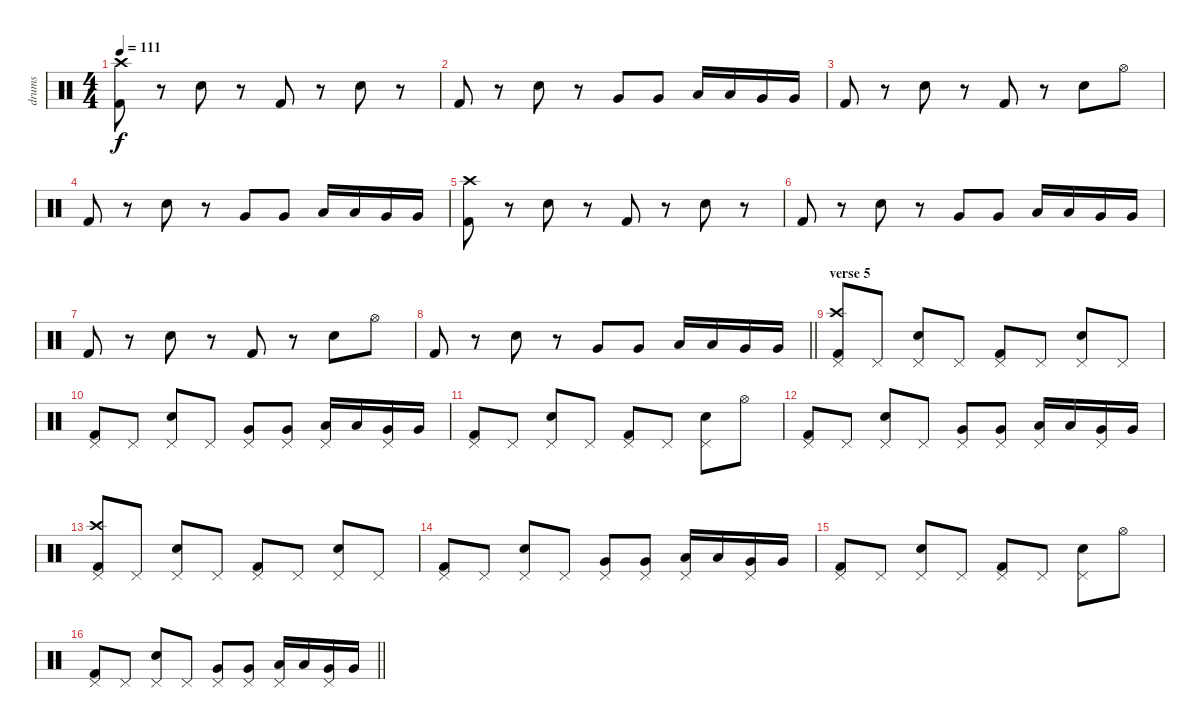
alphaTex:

\track ("drums" "drums") {instrument percussion}
\staff {score}
\articulation defaults
\ts (4 4)
\tempo 111
\clef neutral
\ks c
("Kick (hit) 2" "Crash high (hit)").8{dy f} r.8 "Electric Snare (hit)".8 r.8 "Kick (hit) 2".8 r.8 "Electric Snare (hit)".8 r.8 |
"Kick (hit) 2".8 r.8 "Electric Snare (hit)".8 r.8 "Very Low Tom (hit)".8 "Very Low Tom (hit)".8 "Low Floor Tom (hit)".16 "Low Floor Tom (hit)".16 "Very Low Tom (hit)".16 "Very Low Tom (hit)".16 |
"Kick (hit) 2".8 r.8 "Electric Snare (hit)".8 r.8 "Kick (hit) 2".8 r.8 "Electric Snare (hit)".8 "Hi-Hat (open)".8 |
"Kick (hit) 2".8 r.8 "Electric Snare (hit)".8 r.8 "Very Low Tom (hit)".8 "Very Low Tom (hit)".8 "Low Floor Tom (hit)".16 "Low Floor Tom (hit)".16 "Very Low Tom (hit)".16 "Very Low Tom (hit)".16 |
("Kick (hit) 2" "Crash high (hit)").8 r.8 "Electric Snare (hit)".8 r.8 "Kick (hit) 2".8 r.8 "Electric Snare (hit)".8 r.8 |
"Kick (hit) 2".8 r.8 "Electric Snare (hit)".8 r.8 "Very Low Tom (hit)".8 "Very Low Tom (hit)".8 "Low Floor Tom (hit)".16 "Low Floor Tom (hit)".16 "Very Low Tom (hit)".16 "Very Low Tom (hit)".16 |
"Kick (hit) 2".8 r.8 "Electric Snare (hit)".8 r.8 "Kick (hit) 2".8 r.8 "Electric Snare (hit)".8 "Hi-Hat (open)".8 |
\barLineRight lightlight "Kick (hit) 2".8
r.8 "Electric Snare (hit)".8 r.8 "Very Low Tom (hit)".8 "Very Low Tom (hit)".8 "Low Floor Tom (hit)".16 "Low Floor Tom (hit)".16 "Very Low Tom (hit)".16 "Very Low Tom (hit)".16 |
\section ("" "verse 5")
("Kick (hit) 2" "Pedal Hi-Hat (hit)" "Crash high (hit)").8 "Pedal Hi-Hat (hit)".8 ("Electric Snare (hit)" "Pedal Hi-Hat (hit)").8 "Pedal Hi-Hat (hit)".8 ("Kick (hit) 2" "Pedal Hi-Hat (hit)").8 "Pedal Hi-Hat (hit)".8 ("Electric Snare (hit)" "Pedal Hi-Hat (hit)").8 "Pedal Hi-Hat (hit)".8 |
("Kick (hit) 2" "Pedal Hi-Hat (hit)").8 "Pedal Hi-Hat (hit)".8 ("Electric Snare (hit)" "Pedal Hi-Hat (hit)").8 "Pedal Hi-Hat (hit)".8 ("Very Low Tom (hit)" "Pedal Hi-Hat (hit)").8 ("Very Low Tom (hit)" "Pedal Hi-Hat (hit)").8 ("Low Floor Tom (hit)" "Pedal Hi-Hat (hit)").16 "Low Floor Tom (hit)".16 ("Very Low Tom (hit)" "Pedal Hi-Hat (hit)").16 "Very Low Tom (hit)".16 |
("Kick (hit) 2" "Pedal Hi-Hat (hit)").8 "Pedal Hi-Hat (hit)".8 ("Electric Snare (hit)" "Pedal Hi-Hat (hit)").8 "Pedal Hi-Hat (hit)".8 ("Kick (hit) 2" "Pedal Hi-Hat (hit)").8 "Pedal Hi-Hat (hit)".8 ("Electric Snare (hit)" "Pedal Hi-Hat (hit)").8 "Hi-Hat (open)".8 |
("Kick (hit) 2" "Pedal Hi-Hat (hit)").8 "Pedal Hi-Hat (hit)".8 ("Electric Snare (hit)" "Pedal Hi-Hat (hit)").8 "Pedal Hi-Hat (hit)".8 ("Very Low Tom (hit)" "Pedal Hi-Hat (hit)").8 ("Very Low Tom (hit)" "Pedal Hi-Hat (hit)").8 ("Low Floor Tom (hit)" "Pedal Hi-Hat (hit)").16 "Low Floor Tom (hit)".16 ("Very Low Tom (hit)" "Pedal Hi-Hat (hit)").16 "Very Low Tom (hit)".16 |
("Kick (hit) 2" "Pedal Hi-Hat (hit)" "Crash high (hit)").8 "Pedal Hi-Hat (hit)".8 ("Electric Snare (hit)" "Pedal Hi-Hat (hit)").8 "Pedal Hi-Hat (hit)".8 ("Kick (hit) 2" "Pedal Hi-Hat (hit)").8 "Pedal Hi-Hat (hit)".8 ("Electric Snare (hit)" "Pedal Hi-Hat (hit)").8 "Pedal Hi-Hat (hit)".8 |
("Kick (hit) 2" "Pedal Hi-Hat (hit)").8 "Pedal Hi-Hat (hit)".8 ("Electric Snare (hit)" "Pedal Hi-Hat (hit)").8 "Pedal Hi-Hat (hit)".8 ("Very Low Tom (hit)" "Pedal Hi-Hat (hit)").8 ("Very Low Tom (hit)" "Pedal Hi-Hat (hit)").8 ("Low Floor Tom (hit)" "Pedal Hi-Hat (hit)").16 "Low Floor Tom (hit)".16 ("Very Low Tom (hit)" "Pedal Hi-Hat (hit)").16 "Very Low Tom (hit)".16 |
("Kick (hit) 2" "Pedal Hi-Hat (hit)").8 "Pedal Hi-Hat (hit)".8 ("Electric Snare (hit)" "Pedal Hi-Hat (hit)").8 "Pedal Hi-Hat (hit)".8 ("Kick (hit) 2" "Pedal Hi-Hat (hit)").8 "Pedal Hi-Hat (hit)".8 ("Electric Snare (hit)" "Pedal Hi-Hat (hit)").8 "Hi-Hat (open)".8 |
\barLineRight lightlight
("Kick (hit) 2" "Pedal Hi-Hat (hit)").8 "Pedal Hi-Hat (hit)".8 ("Electric Snare (hit)" "Pedal Hi-Hat (hit)").8 "Pedal Hi-Hat (hit)".8 ("Very Low Tom (hit)" "Pedal Hi-Hat (hit)").8 ("Very Low Tom (hit)" "Pedal Hi-Hat (hit)").8 ("Low Floor Tom (hit)" "Pedal Hi-Hat (hit)").16 "Low Floor Tom (hit)".16 ("Very Low Tom (hit)" "Pedal Hi-Hat (hit)").16 "Very Low Tom (hit)".16
